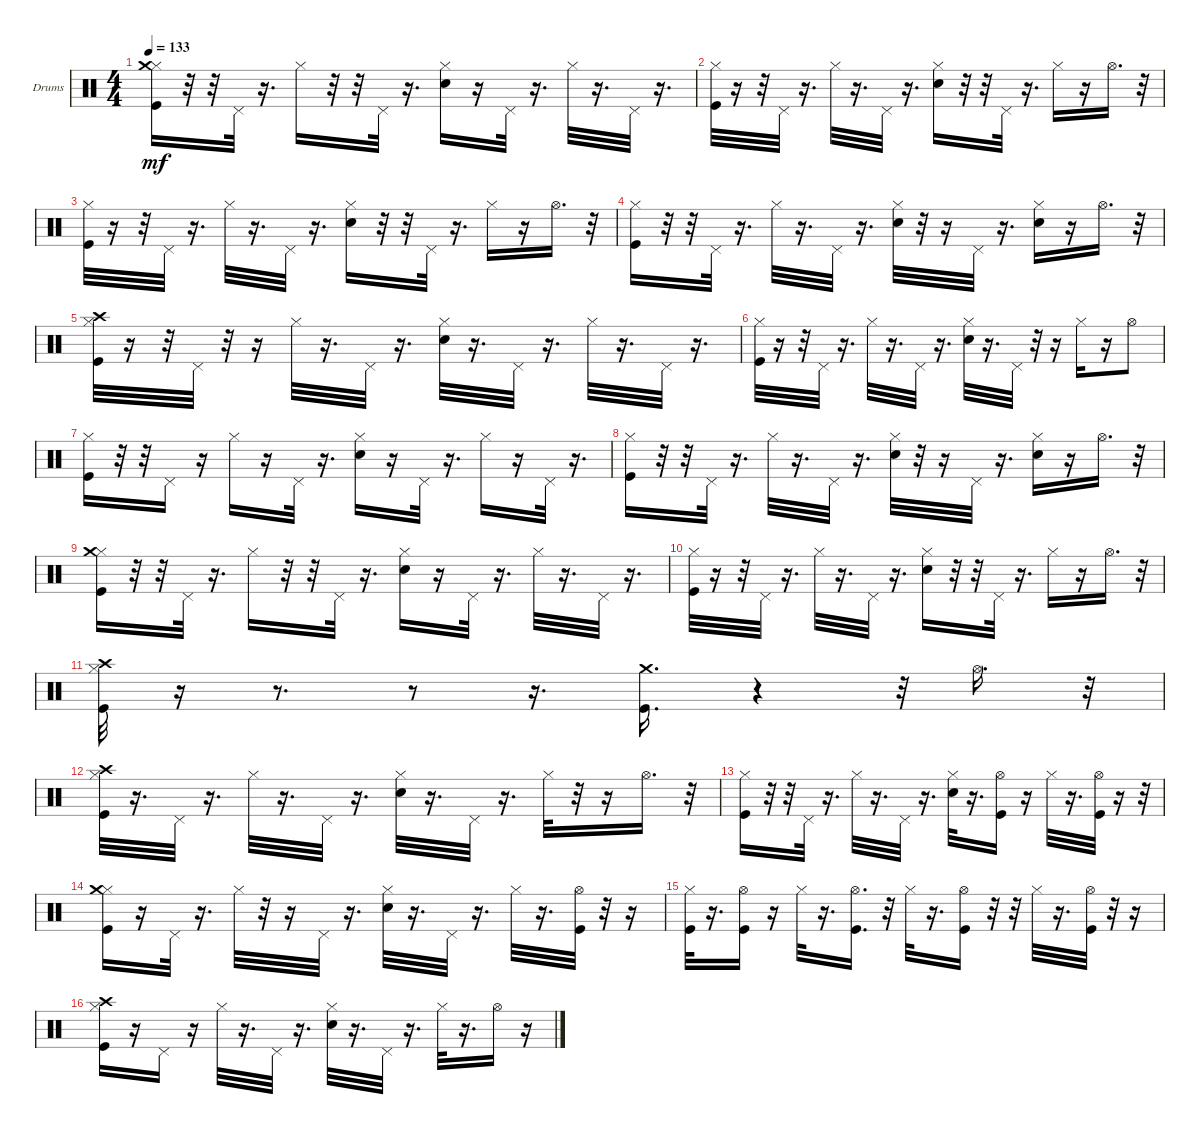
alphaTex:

\defaultSystemsLayout 4
\bracketExtendMode groupsimilarinstruments
\firstSystemTrackNameOrientation horizontal
\otherSystemsTrackNameOrientation horizontal
\track ("Drumkit" "Drums") {instrument percussion}
\staff {score}
\articulation defaults
\ts (4 4)
\tempo 133
\clef neutral
\ks c
("Kick (hit)" "Hi-Hat (closed)" "Crash medium (hit)").16{dy mf} r.32 r.32 "Pedal Hi-Hat (hit)".32 r.16{d} "Hi-Hat (closed)".16 r.32 r.32 "Pedal Hi-Hat (hit)".32 r.16{d} ("Snare (hit) 2" "Hi-Hat (closed)").16 r.16 "Pedal Hi-Hat (hit)".32 r.16{d} "Hi-Hat (closed)".32 r.16{d} "Pedal Hi-Hat (hit)".32 r.16{d} |
("Kick (hit)" "Hi-Hat (closed)").32 r.16 r.32 "Pedal Hi-Hat (hit)".32 r.16{d} "Hi-Hat (closed)".32 r.16{d} "Pedal Hi-Hat (hit)".32 r.16{d} ("Snare (hit) 2" "Hi-Hat (closed)").16 r.32 r.32 "Pedal Hi-Hat (hit)".32 r.16{d} "Hi-Hat (closed)".16 r.16 "Hi-Hat (open)".16{d} r.32 |
("Kick (hit)" "Hi-Hat (closed)").32 r.16 r.32 "Pedal Hi-Hat (hit)".32 r.16{d} "Hi-Hat (closed)".32 r.16{d} "Pedal Hi-Hat (hit)".32 r.16{d} ("Snare (hit) 2" "Hi-Hat (closed)").16 r.32 r.32 "Pedal Hi-Hat (hit)".32 r.16{d} "Hi-Hat (closed)".16 r.16 "Hi-Hat (open)".16{d} r.32 |
("Kick (hit)" "Hi-Hat (closed)").16 r.32 r.32 "Pedal Hi-Hat (hit)".32 r.16{d} "Hi-Hat (closed)".32 r.16{d} "Pedal Hi-Hat (hit)".32 r.16{d} ("Snare (hit) 2" "Hi-Hat (closed)").32 r.32 r.16 "Pedal Hi-Hat (hit)".32 r.16{d} ("Snare (hit) 2" "Hi-Hat (closed)").16 r.16 "Hi-Hat (open)".16{d} r.32 |
("Kick (hit)" "Hi-Hat (closed)" "Crash high (hit)").32 r.16 r.32 "Pedal Hi-Hat (hit)".32 r.32 r.16 "Hi-Hat (closed)".32 r.16{d} "Pedal Hi-Hat (hit)".32 r.16{d} ("Snare (hit) 2" "Hi-Hat (closed)").32 r.16{d} "Pedal Hi-Hat (hit)".32 r.16{d} "Hi-Hat (closed)".32 r.16{d} "Pedal Hi-Hat (hit)".32 r.16{d} |
("Kick (hit)" "Hi-Hat (closed)").32 r.16 r.32 "Pedal Hi-Hat (hit)".32 r.16{d} "Hi-Hat (closed)".32 r.16{d} "Pedal Hi-Hat (hit)".32 r.16{d} ("Snare (hit) 2" "Hi-Hat (closed)").32 r.16{d} "Pedal Hi-Hat (hit)".32 r.32 r.16 "Hi-Hat (closed)".16 r.16 "Hi-Hat (open)".8 |
("Kick (hit)" "Hi-Hat (closed)").16 r.32 r.32 "Pedal Hi-Hat (hit)".16 r.16 "Hi-Hat (closed)".16 r.16 "Pedal Hi-Hat (hit)".32 r.16{d} ("Snare (hit) 2" "Hi-Hat (closed)").16 r.16 "Pedal Hi-Hat (hit)".32 r.16{d} "Hi-Hat (closed)".16 r.16 "Pedal Hi-Hat (hit)".32 r.16{d} |
("Kick (hit)" "Hi-Hat (closed)").16 r.32 r.32 "Pedal Hi-Hat (hit)".32 r.16{d} "Hi-Hat (closed)".32 r.16{d} "Pedal Hi-Hat (hit)".32 r.16{d} ("Snare (hit) 2" "Hi-Hat (closed)").32 r.32 r.16 "Pedal Hi-Hat (hit)".32 r.16{d} ("Snare (hit) 2" "Hi-Hat (closed)").16 r.16 "Hi-Hat (open)".16{d} r.32 |
("Kick (hit)" "Hi-Hat (closed)" "Crash medium (hit)").16 r.32 r.32 "Pedal Hi-Hat (hit)".32 r.16{d} "Hi-Hat (closed)".16 r.32 r.32 "Pedal Hi-Hat (hit)".32 r.16{d} ("Snare (hit) 2" "Hi-Hat (closed)").16 r.16 "Pedal Hi-Hat (hit)".32 r.16{d} "Hi-Hat (closed)".32 r.16{d} "Pedal Hi-Hat (hit)".32 r.16{d} |
("Kick (hit)" "Hi-Hat (closed)").32 r.16 r.32 "Pedal Hi-Hat (hit)".32 r.16{d} "Hi-Hat (closed)".32 r.16{d} "Pedal Hi-Hat (hit)".32 r.16{d} ("Snare (hit) 2" "Hi-Hat (closed)").16 r.32 r.32 "Pedal Hi-Hat (hit)".32 r.16{d} "Hi-Hat (closed)".16 r.16 "Hi-Hat (open)".16{d} r.32 |
("Kick (hit)" "Hi-Hat (closed)" "Crash high (hit)").32 r.16 r.8{d} r.8 r.16{d} ("Kick (hit)" "Crash medium (hit)").16{d} r.4 r.32 "Hi-Hat (open)".16{d} r.32 |
("Kick (hit)" "Hi-Hat (closed)" "Crash high (hit)").32 r.16{d} "Pedal Hi-Hat (hit)".32 r.16{d} "Hi-Hat (closed)".32 r.16{d} "Pedal Hi-Hat (hit)".32 r.16{d} ("Snare (hit) 2" "Hi-Hat (closed)").32 r.16{d} "Pedal Hi-Hat (hit)".32 r.16{d} "Hi-Hat (closed)".32 r.32 r.16 "Hi-Hat (open)".16{d} r.32 |
("Kick (hit)" "Hi-Hat (closed)").16 r.32 r.32 "Pedal Hi-Hat (hit)".32 r.16{d} "Hi-Hat (closed)".32 r.16{d} "Pedal Hi-Hat (hit)".32 r.16{d} ("Snare (hit) 2" "Hi-Hat (closed)").32 r.16{d} ("Kick (hit)" "Hi-Hat (open)").16 r.16 "Hi-Hat (closed)".32 r.16{d} ("Kick (hit)" "Hi-Hat (open)").32 r.16 r.32 |
("Kick (hit)" "Hi-Hat (closed)" "Crash medium (hit)").16 r.16 "Pedal Hi-Hat (hit)".32 r.16{d} "Hi-Hat (closed)".32 r.32 r.16 "Pedal Hi-Hat (hit)".32 r.16{d} ("Snare (hit) 2" "Hi-Hat (closed)").32 r.16{d} "Pedal Hi-Hat (hit)".32 r.16{d} "Hi-Hat (closed)".32 r.16{d} ("Kick (hit)" "Hi-Hat (open)").32 r.32 r.16 |
("Kick (hit)" "Hi-Hat (closed)").32 r.16{d} ("Kick (hit)" "Hi-Hat (open)").16 r.16 "Hi-Hat (closed)".32 r.16{d} ("Kick (hit)" "Hi-Hat (open)").16{d} r.32 "Hi-Hat (closed)".32 r.16{d} ("Kick (hit)" "Hi-Hat (open)").16 r.32 r.32 "Hi-Hat (closed)".32 r.16{d} ("Kick (hit)" "Hi-Hat (open)").32 r.32 r.16 |
("Kick (hit)" "Hi-Hat (closed)" "Crash high (hit)").16 r.16 "Pedal Hi-Hat (hit)".16 r.16 "Hi-Hat (closed)".32 r.16{d} "Pedal Hi-Hat (hit)".32 r.16{d} ("Snare (hit) 2" "Hi-Hat (closed)").32 r.16{d} "Pedal Hi-Hat (hit)".32 r.16{d} "Hi-Hat (closed)".32 r.16{d} "Hi-Hat (open)".16 r.16
